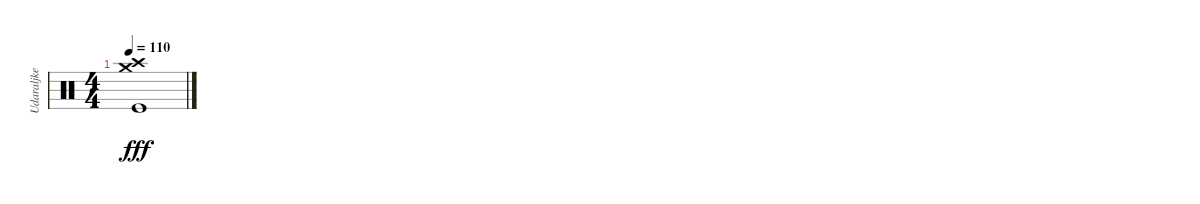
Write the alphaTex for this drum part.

\track ("Udaraljke" "Udaraljke") {instrument percussion}
\staff {score}
\articulation defaults
\ts (4 4)
\tempo 110
\clef neutral
\ks c
("Crash high (hit)" "Crash medium (hit)" "Kick (hit)").1{dy fff}
